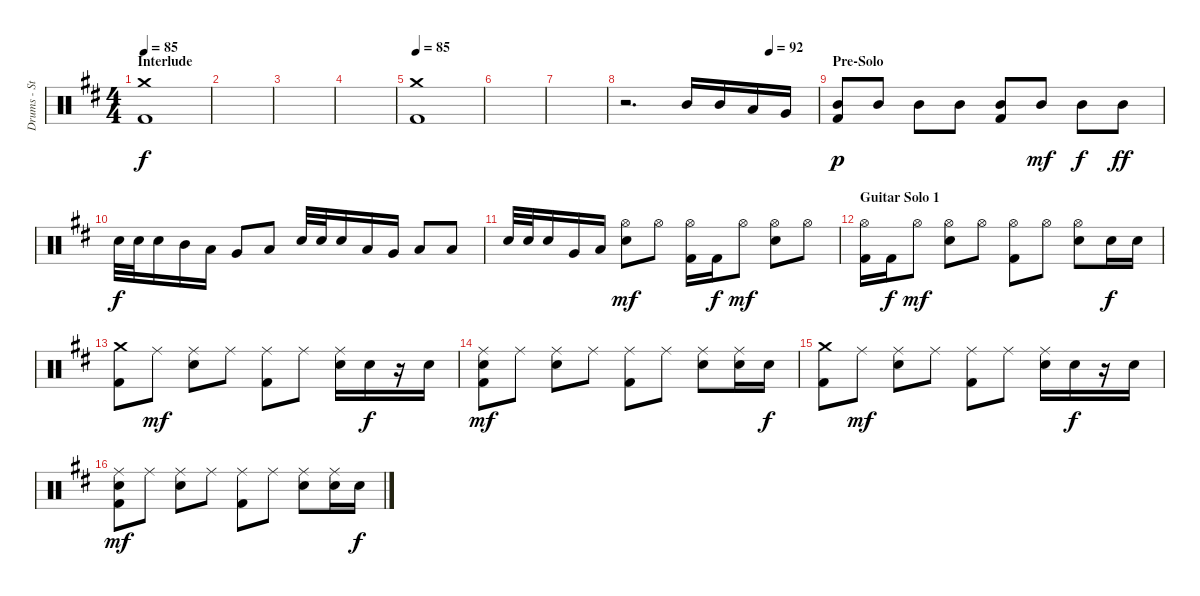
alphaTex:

\track ("Drums - Steve Wacholz" "Drums - St") {instrument percussion}
\staff {score}
\articulation defaults
\ts (4 4)
\section ("" "Interlude")
\tempo 85
\clef neutral
\ks d
("Crash medium (hit)" "Kick (hit) 2").1{dy f} |
|
|
|
\tempo 85
("Crash medium (hit)" "Kick (hit) 2").1 |
|
|
\tempo (92 0.75)
r.2{d} "Mid Tom (hit)".16 "Mid Tom (hit)".16 "Low Tom (hit)".16 "Very Low Tom (hit)".16 |
\section ("" "Pre-Solo")
("Mid Tom (hit)" "Kick (hit) 2").8{dy p} "Mid Tom (hit)".8 "Mid Tom (hit)".8 "Mid Tom (hit)".8 ("Mid Tom (hit)" "Kick (hit) 2").8 "Mid Tom (hit)".8{dy mf} "Mid Tom (hit)".8{dy f} "Mid Tom (hit)".8{dy ff} |
"Electric Snare (hit)".32{dy f} "Electric Snare (hit)".32 "Electric Snare (hit)".16 "Mid Tom (hit)".16 "Low Tom (hit)".16 "Very Low Tom (hit)".8 "Low Floor Tom (hit)".8 "Electric Snare (hit)".32 "Electric Snare (hit)".32 "Electric Snare (hit)".16 "Low Tom (hit)".16 "Very Low Tom (hit)".16 "Low Floor Tom (hit)".8 "Low Floor Tom (hit)".8 |
"Electric Snare (hit)".32 "Electric Snare (hit)".32 "Electric Snare (hit)".16 "Very Low Tom (hit)".16 "Low Floor Tom (hit)".16 ("Hi-Hat (open)" "Electric Snare (hit)").8{dy mf} "Hi-Hat (open)".8 ("Hi-Hat (open)" "Kick (hit) 2").16 "Kick (hit) 2".16{dy f} "Hi-Hat (open)".8{dy mf} ("Hi-Hat (open)" "Electric Snare (hit)").8 "Hi-Hat (open)".8 |
\section ("" "Guitar Solo 1")
("Hi-Hat (open)" "Kick (hit) 2").16 "Kick (hit) 2".16{dy f} "Hi-Hat (open)".8{dy mf} ("Hi-Hat (open)" "Electric Snare (hit)").8 "Hi-Hat (open)".8 ("Hi-Hat (open)" "Kick (hit) 2").8 "Hi-Hat (open)".8 ("Hi-Hat (open)" "Electric Snare (hit)").8 "Electric Snare (hit)".16{dy f} "Electric Snare (hit)".16 |
("Crash medium (hit)" "Kick (hit) 2").8 "Ride (middle)".8{dy mf} ("Ride (middle)" "Electric Snare (hit)").8 "Ride (middle)".8 ("Ride (middle)" "Kick (hit) 2").8 "Ride (middle)".8 ("Ride (middle)" "Electric Snare (hit)").16 "Electric Snare (hit)".16{dy f} r.16 "Electric Snare (hit)".16 |
("Ride (middle)" "Electric Snare (hit)" "Kick (hit) 2").8{dy mf} "Ride (middle)".8 ("Ride (middle)" "Electric Snare (hit)").8 "Ride (middle)".8 ("Ride (middle)" "Kick (hit) 2").8 "Ride (middle)".8 ("Ride (middle)" "Electric Snare (hit)").8 ("Ride (middle)" "Electric Snare (hit)").16 "Electric Snare (hit)".16{dy f} |
("Crash medium (hit)" "Kick (hit) 2").8 "Ride (middle)".8{dy mf} ("Ride (middle)" "Electric Snare (hit)").8 "Ride (middle)".8 ("Ride (middle)" "Kick (hit) 2").8 "Ride (middle)".8 ("Ride (middle)" "Electric Snare (hit)").16 "Electric Snare (hit)".16{dy f} r.16 "Electric Snare (hit)".16 |
("Ride (middle)" "Electric Snare (hit)" "Kick (hit) 2").8{dy mf} "Ride (middle)".8 ("Ride (middle)" "Electric Snare (hit)").8 "Ride (middle)".8 ("Ride (middle)" "Kick (hit) 2").8 "Ride (middle)".8 ("Ride (middle)" "Electric Snare (hit)").8 ("Ride (middle)" "Electric Snare (hit)").16 "Electric Snare (hit)".16{dy f}
